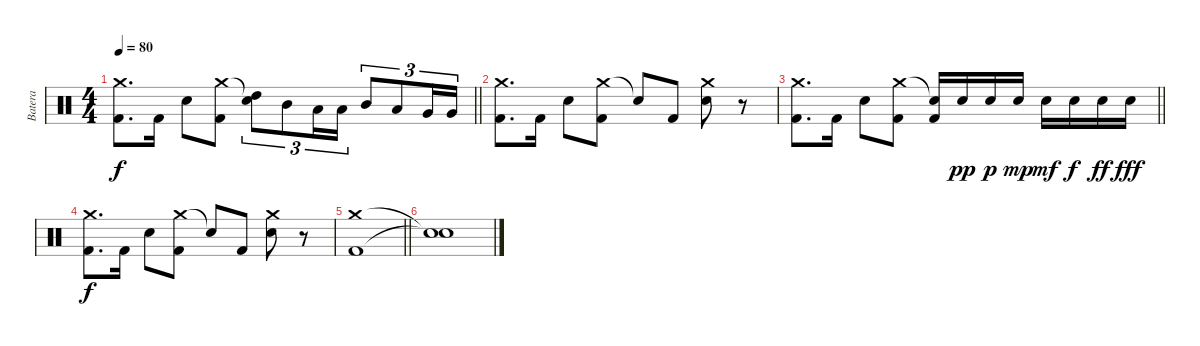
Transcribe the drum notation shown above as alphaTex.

\track ("Batera" "Batera") {instrument percussion}
\staff {score}
\articulation defaults
\ts (4 4)
\tempo 80
\clef neutral
\barLineRight lightlight
\ks c
("Crash medium (hit)" "Kick (hit) 2").8{d dy f} "Kick (hit) 2".16 "Electric Snare (hit)".8 ("Crash medium (hit)" "Kick (hit) 2").8 ("Snare (hit)"{t} "High Tom (hit)").8{tu (3 2)} "Mid Tom (hit)".8{tu (3 2)} "Low Tom (hit)".16{tu (3 2)} "Low Tom (hit)".16{tu (3 2)} "Mid Tom (hit)".8{tu (3 2)} "Low Tom (hit)".8{tu (3 2)} "Very Low Tom (hit)".16{tu (3 2)} "Very Low Tom (hit)".16{tu (3 2)} |
("Crash medium (hit)" "Kick (hit) 2").8{d} "Kick (hit) 2".16 "Electric Snare (hit)".8 ("Crash medium (hit)" "Kick (hit) 2").8 "Snare (hit)"{t}.8 "Kick (hit) 2".8 ("Crash medium (hit)" "Electric Snare (hit)").8 r.8 |
\barLineRight lightlight
("Crash medium (hit)" "Kick (hit) 2").8{d} "Kick (hit) 2".16 "Electric Snare (hit)".8 ("Crash medium (hit)" "Kick (hit) 2").8 ("Snare (hit)"{t} "Kick (hit) 2").16 "Electric Snare (hit)".16{dy pp} "Electric Snare (hit)".16{dy p} "Electric Snare (hit)".16{dy mp} "Electric Snare (hit)".16{dy mf} "Electric Snare (hit)".16{dy f} "Electric Snare (hit)".16{dy ff} "Electric Snare (hit)".16{dy fff} |
("Crash medium (hit)" "Kick (hit) 2").8{d dy f} "Kick (hit) 2".16 "Electric Snare (hit)".8 ("Crash medium (hit)" "Kick (hit) 2").8 "Snare (hit)"{t}.8 "Kick (hit) 2".8 ("Crash medium (hit)" "Electric Snare (hit)").8 r.8 |
\barLineRight lightlight
("Crash medium (hit)" "Kick (hit) 2").1 |
("Snare (hit)"{t} "Snare (hit)"{t}).1
